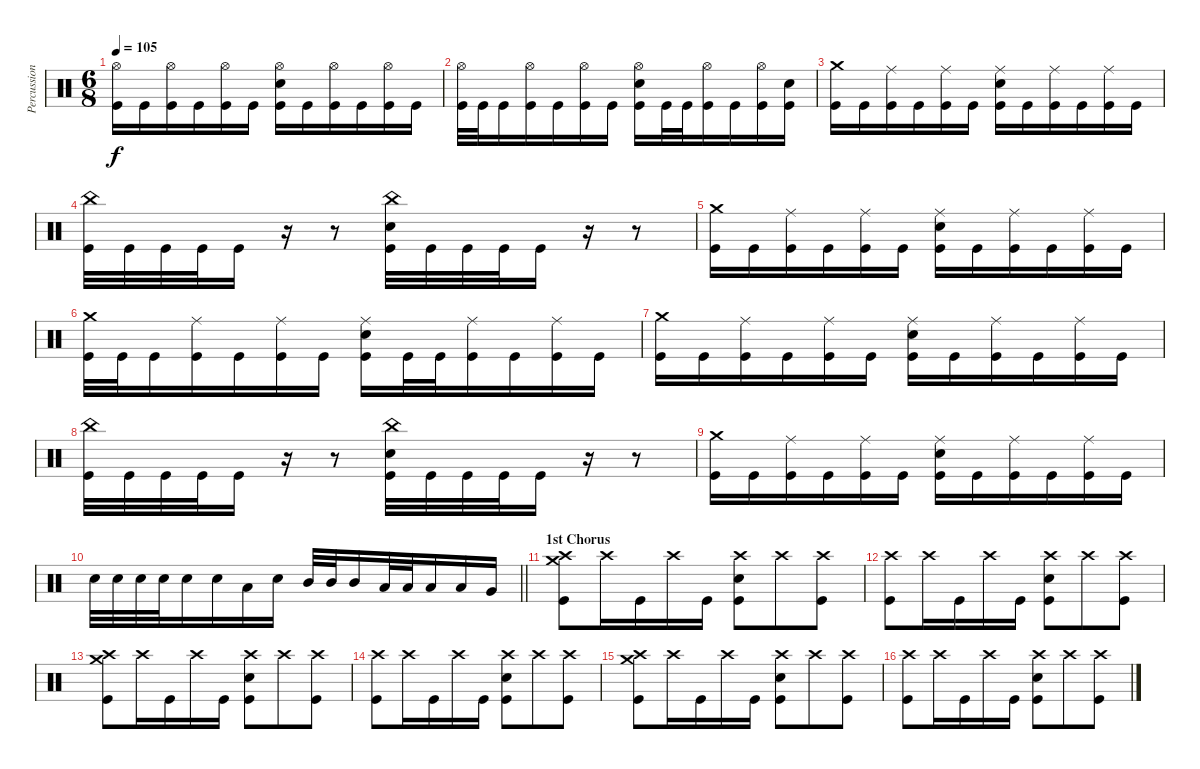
\track ("Percussion" "Percussion") {instrument percussion}
\staff {score}
\articulation defaults
\ts (6 8)
\tempo 105
\clef neutral
\ks c
("Hi-Hat (open)" "Kick (hit)").16{dy f} "Kick (hit)".16 ("Hi-Hat (open)" "Kick (hit)").16 "Kick (hit)".16 ("Hi-Hat (open)" "Kick (hit)").16 "Kick (hit)".16 ("Hi-Hat (open)" "Electric Snare (hit)" "Kick (hit)").16 "Kick (hit)".16 ("Hi-Hat (open)" "Kick (hit)").16 "Kick (hit)".16 ("Hi-Hat (open)" "Kick (hit)").16 "Kick (hit)".16 |
("Hi-Hat (open)" "Kick (hit)").32 "Kick (hit)".32 "Kick (hit)".16 ("Hi-Hat (open)" "Kick (hit)").16 "Kick (hit)".16 ("Hi-Hat (open)" "Kick (hit)").16 "Kick (hit)".16 ("Hi-Hat (open)" "Electric Snare (hit)" "Kick (hit)").16 "Kick (hit)".32 "Kick (hit)".32 ("Hi-Hat (open)" "Kick (hit)").16 "Kick (hit)".16 ("Hi-Hat (open)" "Kick (hit)").16 ("Electric Snare (hit)" "Kick (hit)").16 |
("Crash medium (hit)" "Kick (hit)").16 "Kick (hit)".16 ("Ride (middle)" "Kick (hit)").16 "Kick (hit)".16 ("Ride (middle)" "Kick (hit)").16 "Kick (hit)".16 ("Ride (middle)" "Electric Snare (hit)" "Kick (hit)").16 "Kick (hit)".16 ("Ride (middle)" "Kick (hit)").16 "Kick (hit)".16 ("Ride (middle)" "Kick (hit)").16 "Kick (hit)".16 |
("China (hit)" "Kick (hit)").32 "Kick (hit)".32 "Kick (hit)".32 "Kick (hit)".32 "Kick (hit)".16 r.16 r.8 ("China (hit)" "Electric Snare (hit)" "Kick (hit)").32 "Kick (hit)".32 "Kick (hit)".32 "Kick (hit)".32 "Kick (hit)".16 r.16 r.8 |
("Crash medium (hit)" "Kick (hit)").16 "Kick (hit)".16 ("Ride (middle)" "Kick (hit)").16 "Kick (hit)".16 ("Ride (middle)" "Kick (hit)").16 "Kick (hit)".16 ("Ride (middle)" "Electric Snare (hit)" "Kick (hit)").16 "Kick (hit)".16 ("Ride (middle)" "Kick (hit)").16 "Kick (hit)".16 ("Ride (middle)" "Kick (hit)").16 "Kick (hit)".16 |
("Crash medium (hit)" "Kick (hit)").32 "Kick (hit)".32 "Kick (hit)".16 ("Ride (middle)" "Kick (hit)").16 "Kick (hit)".16 ("Ride (middle)" "Kick (hit)").16 "Kick (hit)".16 ("Ride (middle)" "Electric Snare (hit)" "Kick (hit)").16 "Kick (hit)".32 "Kick (hit)".32 ("Ride (middle)" "Kick (hit)").16 "Kick (hit)".16 ("Ride (middle)" "Kick (hit)").16 "Kick (hit)".16 |
("Crash medium (hit)" "Kick (hit)").16 "Kick (hit)".16 ("Ride (middle)" "Kick (hit)").16 "Kick (hit)".16 ("Ride (middle)" "Kick (hit)").16 "Kick (hit)".16 ("Ride (middle)" "Electric Snare (hit)" "Kick (hit)").16 "Kick (hit)".16 ("Ride (middle)" "Kick (hit)").16 "Kick (hit)".16 ("Ride (middle)" "Kick (hit)").16 "Kick (hit)".16 |
("China (hit)" "Kick (hit)").32 "Kick (hit)".32 "Kick (hit)".32 "Kick (hit)".32 "Kick (hit)".16 r.16 r.8 ("China (hit)" "Electric Snare (hit)" "Kick (hit)").32 "Kick (hit)".32 "Kick (hit)".32 "Kick (hit)".32 "Kick (hit)".16 r.16 r.8 |
("Crash medium (hit)" "Kick (hit)").16 "Kick (hit)".16 ("Ride (middle)" "Kick (hit)").16 "Kick (hit)".16 ("Ride (middle)" "Kick (hit)").16 "Kick (hit)".16 ("Ride (middle)" "Electric Snare (hit)" "Kick (hit)").16 "Kick (hit)".16 ("Ride (middle)" "Kick (hit)").16 "Kick (hit)".16 ("Ride (middle)" "Kick (hit)").16 "Kick (hit)".16 |
\barLineRight lightlight "Electric Snare (hit)".32 "Electric Snare (hit)".32 "Electric Snare (hit)".32 "Electric Snare (hit)".32 "Electric Snare (hit)".16 "Electric Snare (hit)".16 "Low Floor Tom (hit)".16 "Electric Snare (hit)".16 "Mid Tom (hit)".32 "Mid Tom (hit)".32 "Mid Tom (hit)".16 "Low Tom (hit)".32 "Low Tom (hit)".32 "Low Tom (hit)".16 "Low Floor Tom (hit)".16 "Very Low Tom (hit)".16
|
\section ("" "1st Chorus")
("Crash medium (hit)" "Crash high (hit)" "Kick (hit)").8 "Crash high (hit)".16 "Kick (hit)".16 "Crash high (hit)".16 "Kick (hit)".16 ("Crash high (hit)" "Electric Snare (hit)" "Kick (hit)").8 "Crash high (hit)".8 ("Crash high (hit)" "Kick (hit)").8 |
("Crash high (hit)" "Kick (hit)").8 "Crash high (hit)".16 "Kick (hit)".16 "Crash high (hit)".16 "Kick (hit)".16 ("Crash high (hit)" "Electric Snare (hit)" "Kick (hit)").8 "Crash high (hit)".8 ("Crash high (hit)" "Kick (hit)").8 |
("Crash medium (hit)" "Crash high (hit)" "Kick (hit)").8 "Crash high (hit)".16 "Kick (hit)".16 "Crash high (hit)".16 "Kick (hit)".16 ("Crash high (hit)" "Electric Snare (hit)" "Kick (hit)").8 "Crash high (hit)".8 ("Crash high (hit)" "Kick (hit)").8 |
("Crash high (hit)" "Kick (hit)").8 "Crash high (hit)".16 "Kick (hit)".16 "Crash high (hit)".16 "Kick (hit)".16 ("Crash high (hit)" "Electric Snare (hit)" "Kick (hit)").8 "Crash high (hit)".8 ("Crash high (hit)" "Kick (hit)").8 |
("Crash medium (hit)" "Crash high (hit)" "Kick (hit)").8 "Crash high (hit)".16 "Kick (hit)".16 "Crash high (hit)".16 "Kick (hit)".16 ("Crash high (hit)" "Electric Snare (hit)" "Kick (hit)").8 "Crash high (hit)".8 ("Crash high (hit)" "Kick (hit)").8 |
("Crash high (hit)" "Kick (hit)").8 "Crash high (hit)".16 "Kick (hit)".16 "Crash high (hit)".16 "Kick (hit)".16 ("Crash high (hit)" "Electric Snare (hit)" "Kick (hit)").8 "Crash high (hit)".8 ("Crash high (hit)" "Kick (hit)").8
